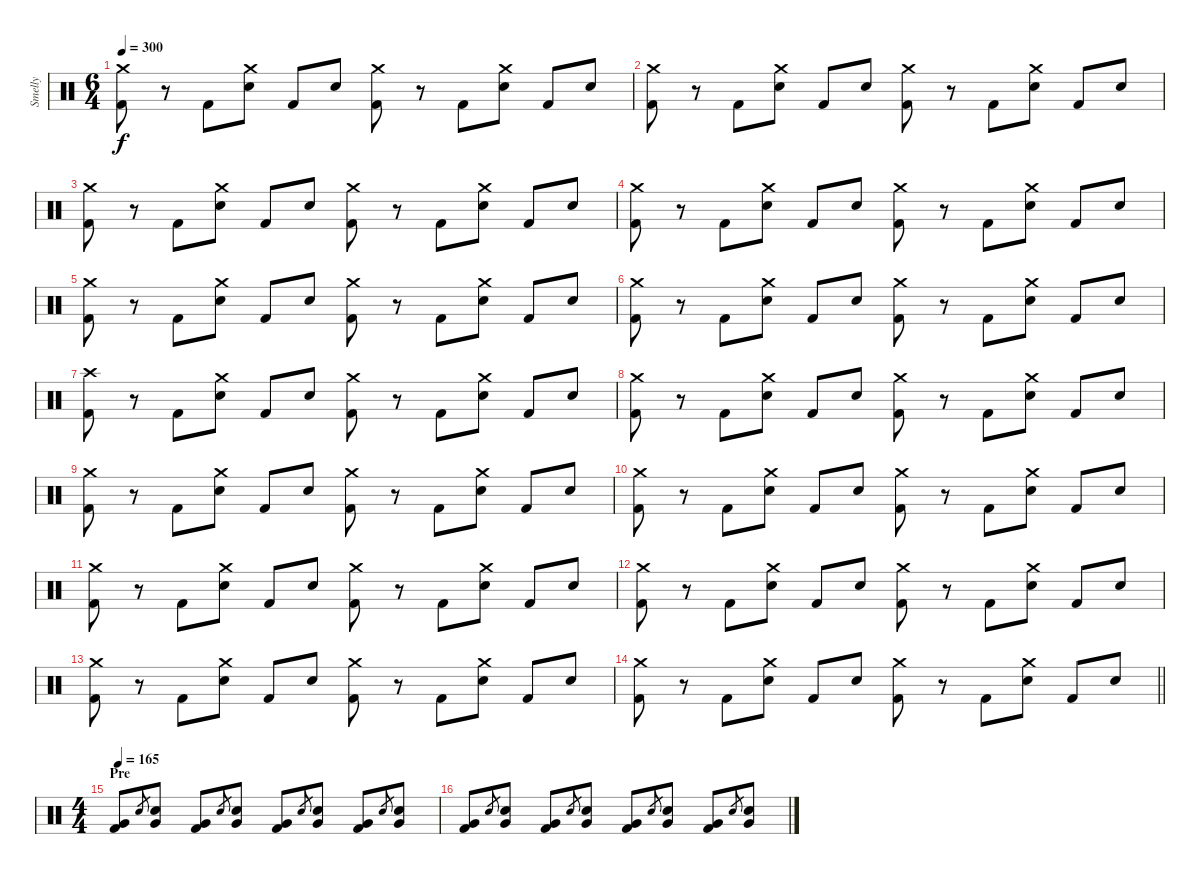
\track ("Smelly" "Smelly") {instrument percussion}
\staff {score}
\articulation defaults
\ts (6 4)
\tempo 300
\clef neutral
\ks c
("Crash medium (hit)" "Kick (hit) 2").8{dy f} r.8 "Kick (hit) 2".8 ("Crash medium (hit)" "Electric Snare (hit)").8 "Kick (hit) 2".8 "Electric Snare (hit)".8 ("Crash medium (hit)" "Kick (hit) 2").8 r.8 "Kick (hit) 2".8 ("Crash medium (hit)" "Electric Snare (hit)").8 "Kick (hit) 2".8 "Electric Snare (hit)".8 |
("Crash medium (hit)" "Kick (hit) 2").8 r.8 "Kick (hit) 2".8 ("Crash medium (hit)" "Electric Snare (hit)").8 "Kick (hit) 2".8 "Electric Snare (hit)".8 ("Crash medium (hit)" "Kick (hit) 2").8 r.8 "Kick (hit) 2".8 ("Crash medium (hit)" "Electric Snare (hit)").8 "Kick (hit) 2".8 "Electric Snare (hit)".8 |
("Crash medium (hit)" "Kick (hit) 2").8 r.8 "Kick (hit) 2".8 ("Crash medium (hit)" "Electric Snare (hit)").8 "Kick (hit) 2".8 "Electric Snare (hit)".8 ("Crash medium (hit)" "Kick (hit) 2").8 r.8 "Kick (hit) 2".8 ("Crash medium (hit)" "Electric Snare (hit)").8 "Kick (hit) 2".8 "Electric Snare (hit)".8 |
("Crash medium (hit)" "Kick (hit) 2").8 r.8 "Kick (hit) 2".8 ("Crash medium (hit)" "Electric Snare (hit)").8 "Kick (hit) 2".8 "Electric Snare (hit)".8 ("Crash medium (hit)" "Kick (hit) 2").8 r.8 "Kick (hit) 2".8 ("Crash medium (hit)" "Electric Snare (hit)").8 "Kick (hit) 2".8 "Electric Snare (hit)".8 |
("Crash medium (hit)" "Kick (hit) 2").8 r.8 "Kick (hit) 2".8 ("Crash medium (hit)" "Electric Snare (hit)").8 "Kick (hit) 2".8 "Electric Snare (hit)".8 ("Crash medium (hit)" "Kick (hit) 2").8 r.8 "Kick (hit) 2".8 ("Crash medium (hit)" "Electric Snare (hit)").8 "Kick (hit) 2".8 "Electric Snare (hit)".8 |
("Crash medium (hit)" "Kick (hit) 2").8 r.8 "Kick (hit) 2".8 ("Crash medium (hit)" "Electric Snare (hit)").8 "Kick (hit) 2".8 "Electric Snare (hit)".8 ("Crash medium (hit)" "Kick (hit) 2").8 r.8 "Kick (hit) 2".8 ("Crash medium (hit)" "Electric Snare (hit)").8 "Kick (hit) 2".8 "Electric Snare (hit)".8 |
("Crash high (hit)" "Kick (hit) 2").8 r.8 "Kick (hit) 2".8 ("Crash medium (hit)" "Electric Snare (hit)").8 "Kick (hit) 2".8 "Electric Snare (hit)".8 ("Crash medium (hit)" "Kick (hit) 2").8 r.8 "Kick (hit) 2".8 ("Crash medium (hit)" "Electric Snare (hit)").8 "Kick (hit) 2".8 "Electric Snare (hit)".8 |
("Crash medium (hit)" "Kick (hit) 2").8 r.8 "Kick (hit) 2".8 ("Crash medium (hit)" "Electric Snare (hit)").8 "Kick (hit) 2".8 "Electric Snare (hit)".8 ("Crash medium (hit)" "Kick (hit) 2").8 r.8 "Kick (hit) 2".8 ("Crash medium (hit)" "Electric Snare (hit)").8 "Kick (hit) 2".8 "Electric Snare (hit)".8 |
("Crash medium (hit)" "Kick (hit) 2").8 r.8 "Kick (hit) 2".8 ("Crash medium (hit)" "Electric Snare (hit)").8 "Kick (hit) 2".8 "Electric Snare (hit)".8 ("Crash medium (hit)" "Kick (hit) 2").8 r.8 "Kick (hit) 2".8 ("Crash medium (hit)" "Electric Snare (hit)").8 "Kick (hit) 2".8 "Electric Snare (hit)".8 |
("Crash medium (hit)" "Kick (hit) 2").8 r.8 "Kick (hit) 2".8 ("Crash medium (hit)" "Electric Snare (hit)").8 "Kick (hit) 2".8 "Electric Snare (hit)".8 ("Crash medium (hit)" "Kick (hit) 2").8 r.8 "Kick (hit) 2".8 ("Crash medium (hit)" "Electric Snare (hit)").8 "Kick (hit) 2".8 "Electric Snare (hit)".8 |
("Crash medium (hit)" "Kick (hit) 2").8 r.8 "Kick (hit) 2".8 ("Crash medium (hit)" "Electric Snare (hit)").8 "Kick (hit) 2".8 "Electric Snare (hit)".8 ("Crash medium (hit)" "Kick (hit) 2").8 r.8 "Kick (hit) 2".8 ("Crash medium (hit)" "Electric Snare (hit)").8 "Kick (hit) 2".8 "Electric Snare (hit)".8 |
("Crash medium (hit)" "Kick (hit) 2").8 r.8 "Kick (hit) 2".8 ("Crash medium (hit)" "Electric Snare (hit)").8 "Kick (hit) 2".8 "Electric Snare (hit)".8 ("Crash medium (hit)" "Kick (hit) 2").8 r.8 "Kick (hit) 2".8 ("Crash medium (hit)" "Electric Snare (hit)").8 "Kick (hit) 2".8 "Electric Snare (hit)".8 |
("Crash medium (hit)" "Kick (hit) 2").8 r.8 "Kick (hit) 2".8 ("Crash medium (hit)" "Electric Snare (hit)").8 "Kick (hit) 2".8 "Electric Snare (hit)".8 ("Crash medium (hit)" "Kick (hit) 2").8 r.8 "Kick (hit) 2".8 ("Crash medium (hit)" "Electric Snare (hit)").8 "Kick (hit) 2".8 "Electric Snare (hit)".8 |
\barLineRight lightlight
("Crash medium (hit)" "Kick (hit) 2").8 r.8 "Kick (hit) 2".8 ("Crash medium (hit)" "Electric Snare (hit)").8 "Kick (hit) 2".8 "Electric Snare (hit)".8 ("Crash medium (hit)" "Kick (hit) 2").8 r.8 "Kick (hit) 2".8 ("Crash medium (hit)" "Electric Snare (hit)").8 "Kick (hit) 2".8 "Electric Snare (hit)".8 |
\ts (4 4)
\section ("" "Pre")
\tempo 165
("Very Low Tom (hit)" "Kick (hit) 2").8 "Electric Snare (hit)".8{gr} ("Very Low Tom (hit)" "Electric Snare (hit)").8 ("Very Low Tom (hit)" "Kick (hit) 2").8 "Electric Snare (hit)".8{gr} ("Very Low Tom (hit)" "Electric Snare (hit)").8 ("Very Low Tom (hit)" "Kick (hit) 2").8 "Electric Snare (hit)".8{gr} ("Very Low Tom (hit)" "Electric Snare (hit)").8 ("Very Low Tom (hit)" "Kick (hit) 2").8 "Electric Snare (hit)".8{gr} ("Very Low Tom (hit)" "Electric Snare (hit)").8 |
("Very Low Tom (hit)" "Kick (hit) 2").8 "Electric Snare (hit)".8{gr} ("Very Low Tom (hit)" "Electric Snare (hit)").8 ("Very Low Tom (hit)" "Kick (hit) 2").8 "Electric Snare (hit)".8{gr} ("Very Low Tom (hit)" "Electric Snare (hit)").8 ("Very Low Tom (hit)" "Kick (hit) 2").8 "Electric Snare (hit)".8{gr} ("Very Low Tom (hit)" "Electric Snare (hit)").8 ("Very Low Tom (hit)" "Kick (hit) 2").8 "Electric Snare (hit)".8{gr} ("Very Low Tom (hit)" "Electric Snare (hit)").8
